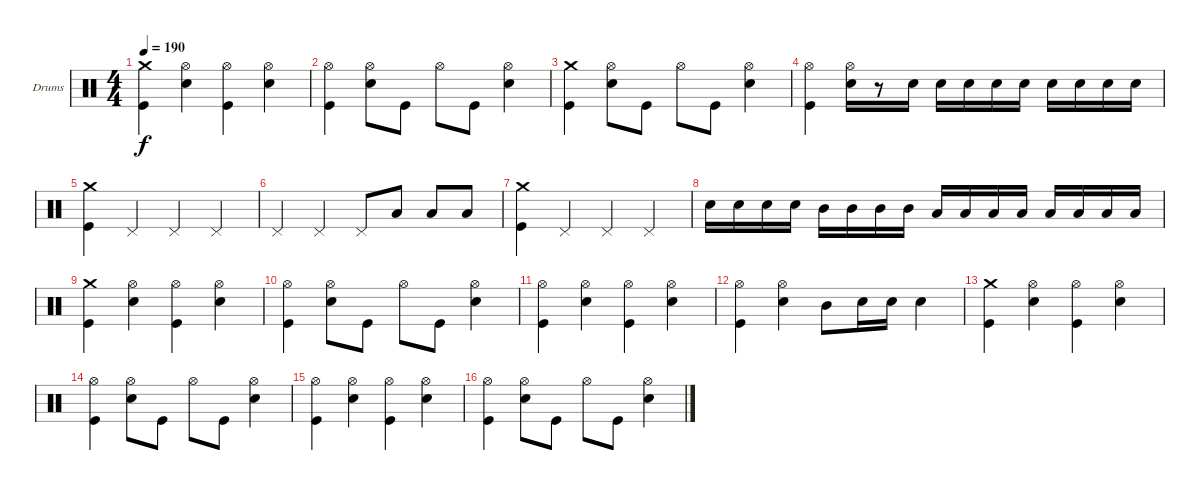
\bracketExtendMode groupsimilarinstruments
\firstSystemTrackNameOrientation horizontal
\otherSystemsTrackNameOrientation horizontal
\track ("Drumkit" "Drums") {instrument percussion}
\staff {score}
\articulation defaults
\ts (4 4)
\tempo 190
\clef neutral
\ks c
("Crash medium (hit)" "Kick (hit)").4{dy f} ("Hi-Hat (open)" "Snare (hit) 2").4 ("Hi-Hat (open)" "Kick (hit)").4 ("Hi-Hat (open)" "Snare (hit) 2").4 |
("Hi-Hat (open)" "Kick (hit)").4 ("Snare (hit) 2" "Hi-Hat (open)").8 "Kick (hit)".8 "Hi-Hat (open)".8 "Kick (hit)".8 ("Snare (hit) 2" "Hi-Hat (open)").4 |
("Crash medium (hit)" "Kick (hit)").4 ("Hi-Hat (open)" "Snare (hit) 2").8 "Kick (hit)".8 "Hi-Hat (open)".8 "Kick (hit)".8 ("Hi-Hat (open)" "Snare (hit) 2").4 |
("Hi-Hat (open)" "Kick (hit)").4 ("Hi-Hat (open)" "Snare (hit) 2").16 r.8 "Snare (hit) 2".16 "Snare (hit) 2".16 "Snare (hit) 2".16 "Snare (hit) 2".16 "Snare (hit) 2".16 "Snare (hit) 2".16 "Snare (hit) 2".16 "Snare (hit) 2".16 "Snare (hit) 2".16 |
("Crash medium (hit)" "Kick (hit)").4 "Pedal Hi-Hat (hit)".4 "Pedal Hi-Hat (hit)".4 "Pedal Hi-Hat (hit)".4 |
"Pedal Hi-Hat (hit)".4 "Pedal Hi-Hat (hit)".4 "Pedal Hi-Hat (hit)".8 "Low Tom (hit)".8 "Low Tom (hit)".8 "Low Tom (hit)".8 |
("Crash medium (hit)" "Kick (hit)").4 "Pedal Hi-Hat (hit)".4 "Pedal Hi-Hat (hit)".4 "Pedal Hi-Hat (hit)".4 |
"Snare (hit) 2".16 "Snare (hit) 2".16 "Snare (hit) 2".16 "Snare (hit) 2".16 "Mid Tom (hit)".16 "Mid Tom (hit)".16 "Mid Tom (hit)".16 "Mid Tom (hit)".16 "Low Tom (hit)".16 "Low Tom (hit)".16 "Low Tom (hit)".16 "Low Tom (hit)".16 "Low Tom (hit)".16 "Low Tom (hit)".16 "Low Tom (hit)".16 "Low Tom (hit)".16 |
("Kick (hit)" "Crash medium (hit)").4 ("Hi-Hat (open)" "Snare (hit) 2").4 ("Hi-Hat (open)" "Kick (hit)").4 ("Snare (hit) 2" "Hi-Hat (open)").4 |
("Kick (hit)" "Hi-Hat (open)").4 ("Hi-Hat (open)" "Snare (hit) 2").8 "Kick (hit)".8 "Hi-Hat (open)".8 "Kick (hit)".8 ("Hi-Hat (open)" "Snare (hit) 2").4 |
("Hi-Hat (open)" "Kick (hit)").4 ("Snare (hit) 2" "Hi-Hat (open)").4 ("Hi-Hat (open)" "Kick (hit)").4 ("Hi-Hat (open)" "Snare (hit) 2").4 |
("Kick (hit)" "Hi-Hat (open)").4 ("Snare (hit) 2" "Hi-Hat (open)").4 "Mid Tom (hit)".8 "Snare (hit) 2".16 "Snare (hit) 2".16 "Snare (hit) 2".4 |
("Kick (hit)" "Crash medium (hit)").4 ("Hi-Hat (open)" "Snare (hit) 2").4 ("Hi-Hat (open)" "Kick (hit)").4 ("Snare (hit) 2" "Hi-Hat (open)").4 |
("Kick (hit)" "Hi-Hat (open)").4 ("Hi-Hat (open)" "Snare (hit) 2").8 "Kick (hit)".8 "Hi-Hat (open)".8 "Kick (hit)".8 ("Hi-Hat (open)" "Snare (hit) 2").4 |
("Hi-Hat (open)" "Kick (hit)").4 ("Snare (hit) 2" "Hi-Hat (open)").4 ("Hi-Hat (open)" "Kick (hit)").4 ("Hi-Hat (open)" "Snare (hit) 2").4 |
("Kick (hit)" "Hi-Hat (open)").4 ("Hi-Hat (open)" "Snare (hit) 2").8 "Kick (hit)".8 "Hi-Hat (open)".8 "Kick (hit)".8 ("Hi-Hat (open)" "Snare (hit) 2").4
